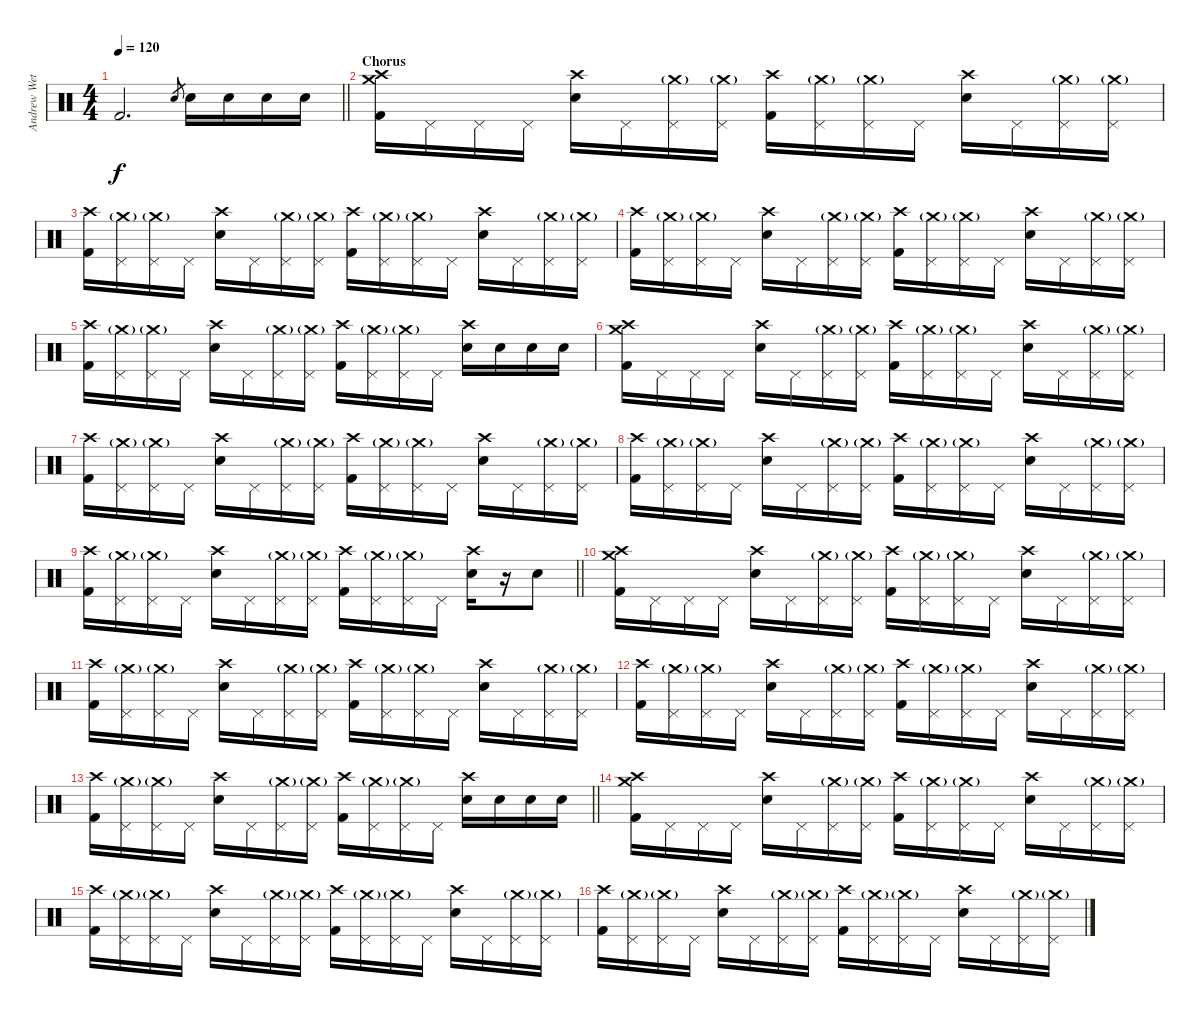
\track ("Andrew Wetzel - Drums" "Andrew Wet") {instrument percussion}
\staff {score}
\articulation defaults
\ts (4 4)
\tempo 120
\clef neutral
\barLineRight lightlight
\ks c "Kick (hit) 2".2{d dy f} "Electric Snare (hit)".8{gr} "Electric Snare (hit)".16 "Electric Snare (hit)".16 "Electric Snare (hit)".16 "Electric Snare (hit)".16
|
\section ("" "Chorus")
("Crash high (hit)" "Crash medium (hit)" "Kick (hit) 2").16 "Pedal Hi-Hat (hit)".16 "Pedal Hi-Hat (hit)".16 "Pedal Hi-Hat (hit)".16 ("Crash high (hit)" "Electric Snare (hit)").16 "Pedal Hi-Hat (hit)".16 ("Pedal Hi-Hat (hit)" "Crash medium (hit)"{g}).16 ("Pedal Hi-Hat (hit)" "Crash medium (hit)"{g}).16 ("Crash high (hit)" "Kick (hit) 2").16 ("Pedal Hi-Hat (hit)" "Crash medium (hit)"{g}).16 ("Pedal Hi-Hat (hit)" "Crash medium (hit)"{g}).16 "Pedal Hi-Hat (hit)".16 ("Crash high (hit)" "Electric Snare (hit)").16 "Pedal Hi-Hat (hit)".16 ("Pedal Hi-Hat (hit)" "Crash medium (hit)"{g}).16 ("Pedal Hi-Hat (hit)" "Crash medium (hit)"{g}).16 |
("Crash high (hit)" "Kick (hit) 2").16 ("Pedal Hi-Hat (hit)" "Crash medium (hit)"{g}).16 ("Pedal Hi-Hat (hit)" "Crash medium (hit)"{g}).16 "Pedal Hi-Hat (hit)".16 ("Crash high (hit)" "Electric Snare (hit)").16 "Pedal Hi-Hat (hit)".16 ("Pedal Hi-Hat (hit)" "Crash medium (hit)"{g}).16 ("Pedal Hi-Hat (hit)" "Crash medium (hit)"{g}).16 ("Crash high (hit)" "Kick (hit) 2").16 ("Pedal Hi-Hat (hit)" "Crash medium (hit)"{g}).16 ("Pedal Hi-Hat (hit)" "Crash medium (hit)"{g}).16 "Pedal Hi-Hat (hit)".16 ("Crash high (hit)" "Electric Snare (hit)").16 "Pedal Hi-Hat (hit)".16 ("Pedal Hi-Hat (hit)" "Crash medium (hit)"{g}).16 ("Pedal Hi-Hat (hit)" "Crash medium (hit)"{g}).16 |
("Crash high (hit)" "Kick (hit) 2").16 ("Pedal Hi-Hat (hit)" "Crash medium (hit)"{g}).16 ("Pedal Hi-Hat (hit)" "Crash medium (hit)"{g}).16 "Pedal Hi-Hat (hit)".16 ("Crash high (hit)" "Electric Snare (hit)").16 "Pedal Hi-Hat (hit)".16 ("Pedal Hi-Hat (hit)" "Crash medium (hit)"{g}).16 ("Pedal Hi-Hat (hit)" "Crash medium (hit)"{g}).16 ("Crash high (hit)" "Kick (hit) 2").16 ("Pedal Hi-Hat (hit)" "Crash medium (hit)"{g}).16 ("Pedal Hi-Hat (hit)" "Crash medium (hit)"{g}).16 "Pedal Hi-Hat (hit)".16 ("Crash high (hit)" "Electric Snare (hit)").16 "Pedal Hi-Hat (hit)".16 ("Pedal Hi-Hat (hit)" "Crash medium (hit)"{g}).16 ("Pedal Hi-Hat (hit)" "Crash medium (hit)"{g}).16 |
("Crash high (hit)" "Kick (hit) 2").16 ("Pedal Hi-Hat (hit)" "Crash medium (hit)"{g}).16 ("Pedal Hi-Hat (hit)" "Crash medium (hit)"{g}).16 "Pedal Hi-Hat (hit)".16 ("Crash high (hit)" "Electric Snare (hit)").16 "Pedal Hi-Hat (hit)".16 ("Pedal Hi-Hat (hit)" "Crash medium (hit)"{g}).16 ("Pedal Hi-Hat (hit)" "Crash medium (hit)"{g}).16 ("Crash high (hit)" "Kick (hit) 2").16 ("Pedal Hi-Hat (hit)" "Crash medium (hit)"{g}).16 ("Pedal Hi-Hat (hit)" "Crash medium (hit)"{g}).16 "Pedal Hi-Hat (hit)".16 ("Crash high (hit)" "Electric Snare (hit)").16 "Electric Snare (hit)".16 "Electric Snare (hit)".16 "Electric Snare (hit)".16 |
("Crash high (hit)" "Crash medium (hit)" "Kick (hit) 2").16 "Pedal Hi-Hat (hit)".16 "Pedal Hi-Hat (hit)".16 "Pedal Hi-Hat (hit)".16 ("Crash high (hit)" "Electric Snare (hit)").16 "Pedal Hi-Hat (hit)".16 ("Pedal Hi-Hat (hit)" "Crash medium (hit)"{g}).16 ("Pedal Hi-Hat (hit)" "Crash medium (hit)"{g}).16 ("Crash high (hit)" "Kick (hit) 2").16 ("Pedal Hi-Hat (hit)" "Crash medium (hit)"{g}).16 ("Pedal Hi-Hat (hit)" "Crash medium (hit)"{g}).16 "Pedal Hi-Hat (hit)".16 ("Crash high (hit)" "Electric Snare (hit)").16 "Pedal Hi-Hat (hit)".16 ("Pedal Hi-Hat (hit)" "Crash medium (hit)"{g}).16 ("Pedal Hi-Hat (hit)" "Crash medium (hit)"{g}).16 |
("Crash high (hit)" "Kick (hit) 2").16 ("Pedal Hi-Hat (hit)" "Crash medium (hit)"{g}).16 ("Pedal Hi-Hat (hit)" "Crash medium (hit)"{g}).16 "Pedal Hi-Hat (hit)".16 ("Crash high (hit)" "Electric Snare (hit)").16 "Pedal Hi-Hat (hit)".16 ("Pedal Hi-Hat (hit)" "Crash medium (hit)"{g}).16 ("Pedal Hi-Hat (hit)" "Crash medium (hit)"{g}).16 ("Crash high (hit)" "Kick (hit) 2").16 ("Pedal Hi-Hat (hit)" "Crash medium (hit)"{g}).16 ("Pedal Hi-Hat (hit)" "Crash medium (hit)"{g}).16 "Pedal Hi-Hat (hit)".16 ("Crash high (hit)" "Electric Snare (hit)").16 "Pedal Hi-Hat (hit)".16 ("Pedal Hi-Hat (hit)" "Crash medium (hit)"{g}).16 ("Pedal Hi-Hat (hit)" "Crash medium (hit)"{g}).16 |
("Crash high (hit)" "Kick (hit) 2").16 ("Pedal Hi-Hat (hit)" "Crash medium (hit)"{g}).16 ("Pedal Hi-Hat (hit)" "Crash medium (hit)"{g}).16 "Pedal Hi-Hat (hit)".16 ("Crash high (hit)" "Electric Snare (hit)").16 "Pedal Hi-Hat (hit)".16 ("Pedal Hi-Hat (hit)" "Crash medium (hit)"{g}).16 ("Pedal Hi-Hat (hit)" "Crash medium (hit)"{g}).16 ("Crash high (hit)" "Kick (hit) 2").16 ("Pedal Hi-Hat (hit)" "Crash medium (hit)"{g}).16 ("Pedal Hi-Hat (hit)" "Crash medium (hit)"{g}).16 "Pedal Hi-Hat (hit)".16 ("Crash high (hit)" "Electric Snare (hit)").16 "Pedal Hi-Hat (hit)".16 ("Pedal Hi-Hat (hit)" "Crash medium (hit)"{g}).16 ("Pedal Hi-Hat (hit)" "Crash medium (hit)"{g}).16 |
\barLineRight lightlight
("Crash high (hit)" "Kick (hit) 2").16 ("Pedal Hi-Hat (hit)" "Crash medium (hit)"{g}).16 ("Pedal Hi-Hat (hit)" "Crash medium (hit)"{g}).16 "Pedal Hi-Hat (hit)".16 ("Crash high (hit)" "Electric Snare (hit)").16 "Pedal Hi-Hat (hit)".16 ("Pedal Hi-Hat (hit)" "Crash medium (hit)"{g}).16 ("Pedal Hi-Hat (hit)" "Crash medium (hit)"{g}).16 ("Crash high (hit)" "Kick (hit) 2").16 ("Pedal Hi-Hat (hit)" "Crash medium (hit)"{g}).16 ("Pedal Hi-Hat (hit)" "Crash medium (hit)"{g}).16 "Pedal Hi-Hat (hit)".16 ("Crash high (hit)" "Electric Snare (hit)").16 r.16 "Electric Snare (hit)".8 |
("Crash high (hit)" "Crash medium (hit)" "Kick (hit) 2").16 "Pedal Hi-Hat (hit)".16 "Pedal Hi-Hat (hit)".16 "Pedal Hi-Hat (hit)".16 ("Crash high (hit)" "Electric Snare (hit)").16 "Pedal Hi-Hat (hit)".16 ("Pedal Hi-Hat (hit)" "Crash medium (hit)"{g}).16 ("Pedal Hi-Hat (hit)" "Crash medium (hit)"{g}).16 ("Crash high (hit)" "Kick (hit) 2").16 ("Pedal Hi-Hat (hit)" "Crash medium (hit)"{g}).16 ("Pedal Hi-Hat (hit)" "Crash medium (hit)"{g}).16 "Pedal Hi-Hat (hit)".16 ("Crash high (hit)" "Electric Snare (hit)").16 "Pedal Hi-Hat (hit)".16 ("Pedal Hi-Hat (hit)" "Crash medium (hit)"{g}).16 ("Pedal Hi-Hat (hit)" "Crash medium (hit)"{g}).16 |
("Crash high (hit)" "Kick (hit) 2").16 ("Pedal Hi-Hat (hit)" "Crash medium (hit)"{g}).16 ("Pedal Hi-Hat (hit)" "Crash medium (hit)"{g}).16 "Pedal Hi-Hat (hit)".16 ("Crash high (hit)" "Electric Snare (hit)").16 "Pedal Hi-Hat (hit)".16 ("Pedal Hi-Hat (hit)" "Crash medium (hit)"{g}).16 ("Pedal Hi-Hat (hit)" "Crash medium (hit)"{g}).16 ("Crash high (hit)" "Kick (hit) 2").16 ("Pedal Hi-Hat (hit)" "Crash medium (hit)"{g}).16 ("Pedal Hi-Hat (hit)" "Crash medium (hit)"{g}).16 "Pedal Hi-Hat (hit)".16 ("Crash high (hit)" "Electric Snare (hit)").16 "Pedal Hi-Hat (hit)".16 ("Pedal Hi-Hat (hit)" "Crash medium (hit)"{g}).16 ("Pedal Hi-Hat (hit)" "Crash medium (hit)"{g}).16 |
("Crash high (hit)" "Kick (hit) 2").16 ("Pedal Hi-Hat (hit)" "Crash medium (hit)"{g}).16 ("Pedal Hi-Hat (hit)" "Crash medium (hit)"{g}).16 "Pedal Hi-Hat (hit)".16 ("Crash high (hit)" "Electric Snare (hit)").16 "Pedal Hi-Hat (hit)".16 ("Pedal Hi-Hat (hit)" "Crash medium (hit)"{g}).16 ("Pedal Hi-Hat (hit)" "Crash medium (hit)"{g}).16 ("Crash high (hit)" "Kick (hit) 2").16 ("Pedal Hi-Hat (hit)" "Crash medium (hit)"{g}).16 ("Pedal Hi-Hat (hit)" "Crash medium (hit)"{g}).16 "Pedal Hi-Hat (hit)".16 ("Crash high (hit)" "Electric Snare (hit)").16 "Pedal Hi-Hat (hit)".16 ("Pedal Hi-Hat (hit)" "Crash medium (hit)"{g}).16 ("Pedal Hi-Hat (hit)" "Crash medium (hit)"{g}).16 |
\barLineRight lightlight
("Crash high (hit)" "Kick (hit) 2").16 ("Pedal Hi-Hat (hit)" "Crash medium (hit)"{g}).16 ("Pedal Hi-Hat (hit)" "Crash medium (hit)"{g}).16 "Pedal Hi-Hat (hit)".16 ("Crash high (hit)" "Electric Snare (hit)").16 "Pedal Hi-Hat (hit)".16 ("Pedal Hi-Hat (hit)" "Crash medium (hit)"{g}).16 ("Pedal Hi-Hat (hit)" "Crash medium (hit)"{g}).16 ("Crash high (hit)" "Kick (hit) 2").16 ("Pedal Hi-Hat (hit)" "Crash medium (hit)"{g}).16 ("Pedal Hi-Hat (hit)" "Crash medium (hit)"{g}).16 "Pedal Hi-Hat (hit)".16 ("Crash high (hit)" "Electric Snare (hit)").16 "Electric Snare (hit)".16 "Electric Snare (hit)".16 "Electric Snare (hit)".16 |
("Crash high (hit)" "Crash medium (hit)" "Kick (hit) 2").16 "Pedal Hi-Hat (hit)".16 "Pedal Hi-Hat (hit)".16 "Pedal Hi-Hat (hit)".16 ("Crash high (hit)" "Electric Snare (hit)").16 "Pedal Hi-Hat (hit)".16 ("Pedal Hi-Hat (hit)" "Crash medium (hit)"{g}).16 ("Pedal Hi-Hat (hit)" "Crash medium (hit)"{g}).16 ("Crash high (hit)" "Kick (hit) 2").16 ("Pedal Hi-Hat (hit)" "Crash medium (hit)"{g}).16 ("Pedal Hi-Hat (hit)" "Crash medium (hit)"{g}).16 "Pedal Hi-Hat (hit)".16 ("Crash high (hit)" "Electric Snare (hit)").16 "Pedal Hi-Hat (hit)".16 ("Pedal Hi-Hat (hit)" "Crash medium (hit)"{g}).16 ("Pedal Hi-Hat (hit)" "Crash medium (hit)"{g}).16 |
("Crash high (hit)" "Kick (hit) 2").16 ("Pedal Hi-Hat (hit)" "Crash medium (hit)"{g}).16 ("Pedal Hi-Hat (hit)" "Crash medium (hit)"{g}).16 "Pedal Hi-Hat (hit)".16 ("Crash high (hit)" "Electric Snare (hit)").16 "Pedal Hi-Hat (hit)".16 ("Pedal Hi-Hat (hit)" "Crash medium (hit)"{g}).16 ("Pedal Hi-Hat (hit)" "Crash medium (hit)"{g}).16 ("Crash high (hit)" "Kick (hit) 2").16 ("Pedal Hi-Hat (hit)" "Crash medium (hit)"{g}).16 ("Pedal Hi-Hat (hit)" "Crash medium (hit)"{g}).16 "Pedal Hi-Hat (hit)".16 ("Crash high (hit)" "Electric Snare (hit)").16 "Pedal Hi-Hat (hit)".16 ("Pedal Hi-Hat (hit)" "Crash medium (hit)"{g}).16 ("Pedal Hi-Hat (hit)" "Crash medium (hit)"{g}).16 |
("Crash high (hit)" "Kick (hit) 2").16 ("Pedal Hi-Hat (hit)" "Crash medium (hit)"{g}).16 ("Pedal Hi-Hat (hit)" "Crash medium (hit)"{g}).16 "Pedal Hi-Hat (hit)".16 ("Crash high (hit)" "Electric Snare (hit)").16 "Pedal Hi-Hat (hit)".16 ("Pedal Hi-Hat (hit)" "Crash medium (hit)"{g}).16 ("Pedal Hi-Hat (hit)" "Crash medium (hit)"{g}).16 ("Crash high (hit)" "Kick (hit) 2").16 ("Pedal Hi-Hat (hit)" "Crash medium (hit)"{g}).16 ("Pedal Hi-Hat (hit)" "Crash medium (hit)"{g}).16 "Pedal Hi-Hat (hit)".16 ("Crash high (hit)" "Electric Snare (hit)").16 "Pedal Hi-Hat (hit)".16 ("Pedal Hi-Hat (hit)" "Crash medium (hit)"{g}).16 ("Pedal Hi-Hat (hit)" "Crash medium (hit)"{g}).16
